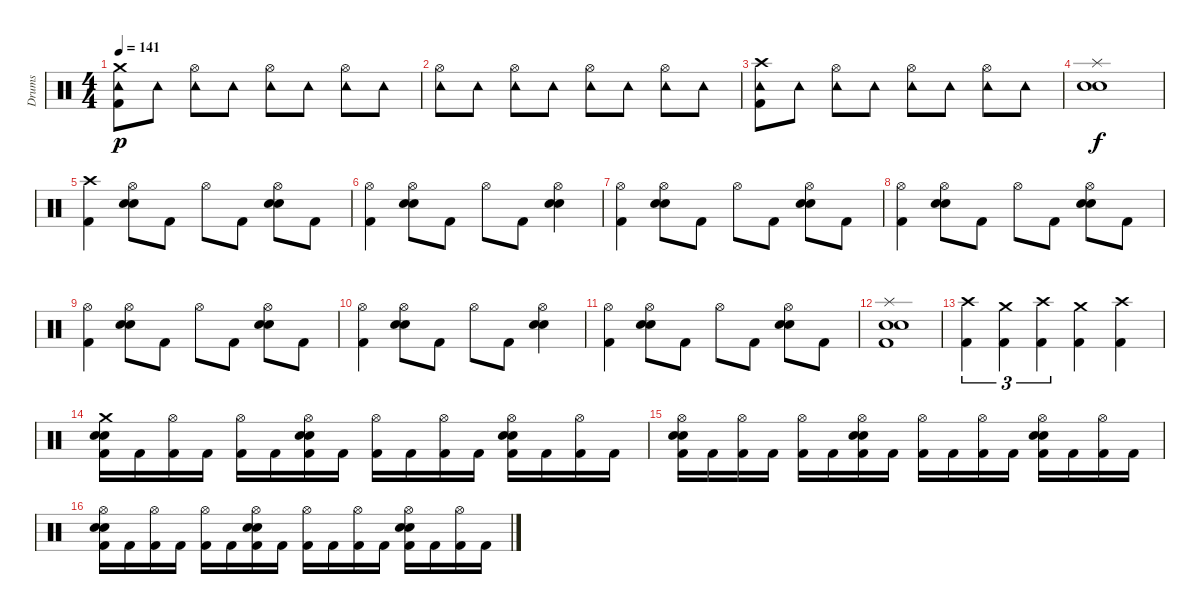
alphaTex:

\track ("Drums " "Drums ") {instrument percussion}
\staff {score}
\articulation defaults
\ts (4 4)
\tempo 141
\clef neutral
\ks c
("Crash medium (hit)" "Tambourine (hit)" "Kick (hit) 2").8{dy p} "Tambourine (hit)".8 ("Hi-Hat (open)" "Tambourine (hit)").8 "Tambourine (hit)".8 ("Hi-Hat (open)" "Tambourine (hit)").8 "Tambourine (hit)".8 ("Hi-Hat (open)" "Tambourine (hit)").8 "Tambourine (hit)".8 |
("Hi-Hat (open)" "Tambourine (hit)").8 "Tambourine (hit)".8 ("Hi-Hat (open)" "Tambourine (hit)").8 "Tambourine (hit)".8 ("Hi-Hat (open)" "Tambourine (hit)").8 "Tambourine (hit)".8 ("Hi-Hat (open)" "Tambourine (hit)").8 "Tambourine (hit)".8 |
("Crash high (hit)" "Tambourine (hit)" "Kick (hit) 2").8 "Tambourine (hit)".8 ("Hi-Hat (open)" "Tambourine (hit)").8 "Tambourine (hit)".8 ("Hi-Hat (open)" "Tambourine (hit)").8 "Tambourine (hit)".8 ("Hi-Hat (open)" "Tambourine (hit)").8 "Tambourine (hit)".8 |
("Splash (hit)" "Snare (hit) 2" "Electric Snare (hit)").1{dy f} |
("Crash high (hit)" "Kick (hit) 2").4 ("Hi-Hat (open)" "Snare (hit) 2" "Electric Snare (hit)").8 "Kick (hit) 2".8 "Hi-Hat (open)".8 "Kick (hit) 2".8 ("Hi-Hat (open)" "Snare (hit) 2" "Electric Snare (hit)").8 "Kick (hit) 2".8 |
("Hi-Hat (open)" "Kick (hit) 2").4 ("Hi-Hat (open)" "Snare (hit) 2" "Electric Snare (hit)").8 "Kick (hit) 2".8 "Hi-Hat (open)".8 "Kick (hit) 2".8 ("Hi-Hat (open)" "Snare (hit) 2" "Electric Snare (hit)").4 |
("Hi-Hat (open)" "Kick (hit) 2").4 ("Hi-Hat (open)" "Snare (hit) 2" "Electric Snare (hit)").8 "Kick (hit) 2".8 "Hi-Hat (open)".8 "Kick (hit) 2".8 ("Hi-Hat (open)" "Snare (hit) 2" "Electric Snare (hit)").8 "Kick (hit) 2".8 |
("Hi-Hat (open)" "Kick (hit) 2").4 ("Hi-Hat (open)" "Snare (hit) 2" "Electric Snare (hit)").8 "Kick (hit) 2".8 "Hi-Hat (open)".8 "Kick (hit) 2".8 ("Hi-Hat (open)" "Snare (hit) 2" "Electric Snare (hit)").8 "Kick (hit) 2".8 |
("Hi-Hat (open)" "Kick (hit) 2").4 ("Hi-Hat (open)" "Snare (hit) 2" "Electric Snare (hit)").8 "Kick (hit) 2".8 "Hi-Hat (open)".8 "Kick (hit) 2".8 ("Hi-Hat (open)" "Snare (hit) 2" "Electric Snare (hit)").8 "Kick (hit) 2".8 |
("Hi-Hat (open)" "Kick (hit) 2").4 ("Hi-Hat (open)" "Snare (hit) 2" "Electric Snare (hit)").8 "Kick (hit) 2".8 "Hi-Hat (open)".8 "Kick (hit) 2".8 ("Hi-Hat (open)" "Snare (hit) 2" "Electric Snare (hit)").4 |
("Hi-Hat (open)" "Kick (hit) 2").4 ("Hi-Hat (open)" "Snare (hit) 2" "Electric Snare (hit)").8 "Kick (hit) 2".8 "Hi-Hat (open)".8 "Kick (hit) 2".8 ("Hi-Hat (open)" "Snare (hit) 2" "Electric Snare (hit)").8 "Kick (hit) 2".8 |
("Splash (hit)" "Snare (hit) 2" "Electric Snare (hit)" "Kick (hit) 2").1 |
("Crash high (hit)" "Kick (hit) 2").4{tu (3 2)} ("Crash medium (hit)" "Kick (hit) 2").4{tu (3 2)} ("Crash high (hit)" "Kick (hit) 2").4{tu (3 2)} ("Crash medium (hit)" "Kick (hit) 2").4 ("Crash high (hit)" "Kick (hit) 2").4 |
("Crash medium (hit)" "Snare (hit) 2" "Electric Snare (hit)" "Kick (hit) 2").16 "Kick (hit) 2".16 ("Hi-Hat (open)" "Kick (hit) 2").16 "Kick (hit) 2".16 ("Hi-Hat (open)" "Kick (hit) 2").16 "Kick (hit) 2".16 ("Hi-Hat (open)" "Snare (hit) 2" "Electric Snare (hit)" "Kick (hit) 2").16 "Kick (hit) 2".16 ("Hi-Hat (open)" "Kick (hit) 2").16 "Kick (hit) 2".16 ("Hi-Hat (open)" "Kick (hit) 2").16 "Kick (hit) 2".16 ("Hi-Hat (open)" "Snare (hit) 2" "Electric Snare (hit)" "Kick (hit) 2").16 "Kick (hit) 2".16 ("Hi-Hat (open)" "Kick (hit) 2").16 "Kick (hit) 2".16 |
("Hi-Hat (open)" "Snare (hit) 2" "Electric Snare (hit)" "Kick (hit) 2").16 "Kick (hit) 2".16 ("Hi-Hat (open)" "Kick (hit) 2").16 "Kick (hit) 2".16 ("Hi-Hat (open)" "Kick (hit) 2").16 "Kick (hit) 2".16 ("Hi-Hat (open)" "Snare (hit) 2" "Electric Snare (hit)" "Kick (hit) 2").16 "Kick (hit) 2".16 ("Hi-Hat (open)" "Kick (hit) 2").16 "Kick (hit) 2".16 ("Hi-Hat (open)" "Kick (hit) 2").16 "Kick (hit) 2".16 ("Hi-Hat (open)" "Snare (hit) 2" "Electric Snare (hit)" "Kick (hit) 2").16 "Kick (hit) 2".16 ("Hi-Hat (open)" "Kick (hit) 2").16 "Kick (hit) 2".16 |
("Hi-Hat (open)" "Snare (hit) 2" "Electric Snare (hit)" "Kick (hit) 2").16 "Kick (hit) 2".16 ("Hi-Hat (open)" "Kick (hit) 2").16 "Kick (hit) 2".16 ("Hi-Hat (open)" "Kick (hit) 2").16 "Kick (hit) 2".16 ("Hi-Hat (open)" "Snare (hit) 2" "Electric Snare (hit)" "Kick (hit) 2").16 "Kick (hit) 2".16 ("Hi-Hat (open)" "Kick (hit) 2").16 "Kick (hit) 2".16 ("Hi-Hat (open)" "Kick (hit) 2").16 "Kick (hit) 2".16 ("Hi-Hat (open)" "Snare (hit) 2" "Electric Snare (hit)" "Kick (hit) 2").16 "Kick (hit) 2".16 ("Hi-Hat (open)" "Kick (hit) 2").16 "Kick (hit) 2".16
